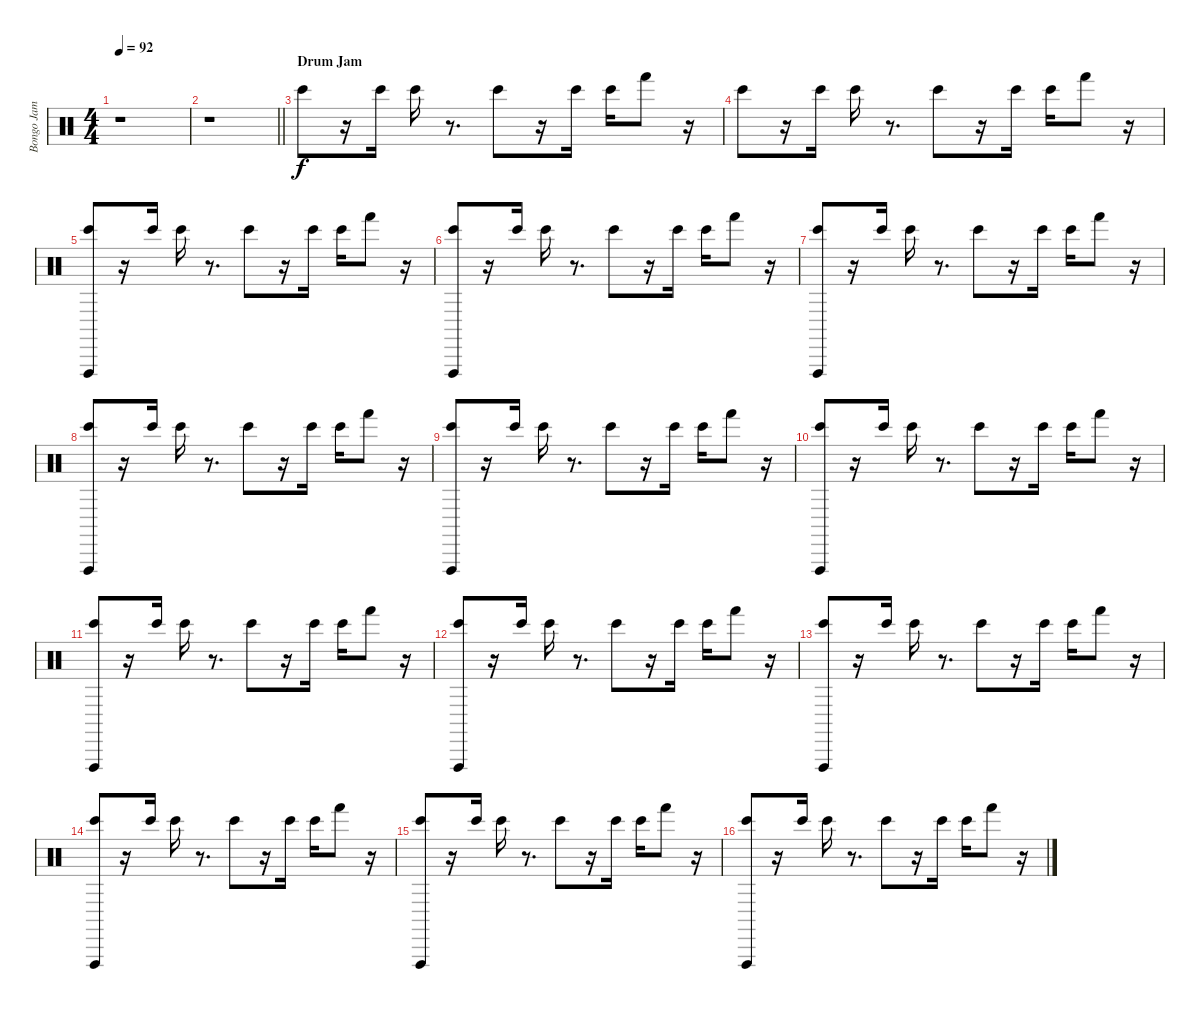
\track ("Bongo Jam and Vibraslap" "Bongo Jam ") {instrument percussion}
\staff {score}
\articulation defaults
\ts (4 4)
\tempo 92
\clef neutral
\ks c
r.1{dy f} |
\barLineRight lightlight
r.1 |
\section ("" "Drum Jam")
"Bongo High (hit)".8{volume 14} r.16 "Bongo High (hit)".16 "Bongo High (hit)".16 r.8{d} "Bongo High (hit)".8 r.16 "Bongo High (hit)".16 "Bongo High (hit)".16 "Hand (hit)".8 r.16 |
"Bongo High (hit)".8 r.16 "Bongo High (hit)".16 "Bongo High (hit)".16 r.8{d} "Bongo High (hit)".8 r.16 "Bongo High (hit)".16 "Bongo High (hit)".16 "Hand (hit)".8 r.16 |
("Bongo High (hit)" "Vibraslap (hit)").8 r.16 "Bongo High (hit)".16 "Bongo High (hit)".16 r.8{d} "Bongo High (hit)".8 r.16 "Bongo High (hit)".16 "Bongo High (hit)".16 "Hand (hit)".8 r.16 |
("Bongo High (hit)" "Vibraslap (hit)").8 r.16 "Bongo High (hit)".16 "Bongo High (hit)".16 r.8{d} "Bongo High (hit)".8 r.16 "Bongo High (hit)".16 "Bongo High (hit)".16 "Hand (hit)".8 r.16 |
("Bongo High (hit)" "Vibraslap (hit)").8 r.16 "Bongo High (hit)".16 "Bongo High (hit)".16 r.8{d} "Bongo High (hit)".8 r.16 "Bongo High (hit)".16 "Bongo High (hit)".16 "Hand (hit)".8 r.16 |
("Bongo High (hit)" "Vibraslap (hit)").8 r.16 "Bongo High (hit)".16 "Bongo High (hit)".16 r.8{d} "Bongo High (hit)".8 r.16 "Bongo High (hit)".16 "Bongo High (hit)".16 "Hand (hit)".8 r.16 |
("Bongo High (hit)" "Vibraslap (hit)").8 r.16 "Bongo High (hit)".16 "Bongo High (hit)".16 r.8{d} "Bongo High (hit)".8 r.16 "Bongo High (hit)".16 "Bongo High (hit)".16 "Hand (hit)".8 r.16 |
("Bongo High (hit)" "Vibraslap (hit)").8 r.16 "Bongo High (hit)".16 "Bongo High (hit)".16 r.8{d} "Bongo High (hit)".8 r.16 "Bongo High (hit)".16 "Bongo High (hit)".16 "Hand (hit)".8 r.16 |
("Bongo High (hit)" "Vibraslap (hit)").8 r.16 "Bongo High (hit)".16 "Bongo High (hit)".16 r.8{d} "Bongo High (hit)".8 r.16 "Bongo High (hit)".16 "Bongo High (hit)".16 "Hand (hit)".8 r.16 |
("Bongo High (hit)" "Vibraslap (hit)").8 r.16 "Bongo High (hit)".16 "Bongo High (hit)".16 r.8{d} "Bongo High (hit)".8 r.16 "Bongo High (hit)".16 "Bongo High (hit)".16 "Hand (hit)".8 r.16 |
("Bongo High (hit)" "Vibraslap (hit)").8 r.16 "Bongo High (hit)".16 "Bongo High (hit)".16 r.8{d} "Bongo High (hit)".8 r.16 "Bongo High (hit)".16 "Bongo High (hit)".16 "Hand (hit)".8 r.16 |
("Bongo High (hit)" "Vibraslap (hit)").8{volume 16} r.16 "Bongo High (hit)".16 "Bongo High (hit)".16 r.8{d} "Bongo High (hit)".8 r.16 "Bongo High (hit)".16 "Bongo High (hit)".16 "Hand (hit)".8 r.16 |
("Bongo High (hit)" "Vibraslap (hit)").8 r.16 "Bongo High (hit)".16 "Bongo High (hit)".16 r.8{d} "Bongo High (hit)".8 r.16 "Bongo High (hit)".16 "Bongo High (hit)".16 "Hand (hit)".8 r.16 |
("Bongo High (hit)" "Vibraslap (hit)").8 r.16 "Bongo High (hit)".16 "Bongo High (hit)".16 r.8{d} "Bongo High (hit)".8 r.16 "Bongo High (hit)".16 "Bongo High (hit)".16 "Hand (hit)".8 r.16
